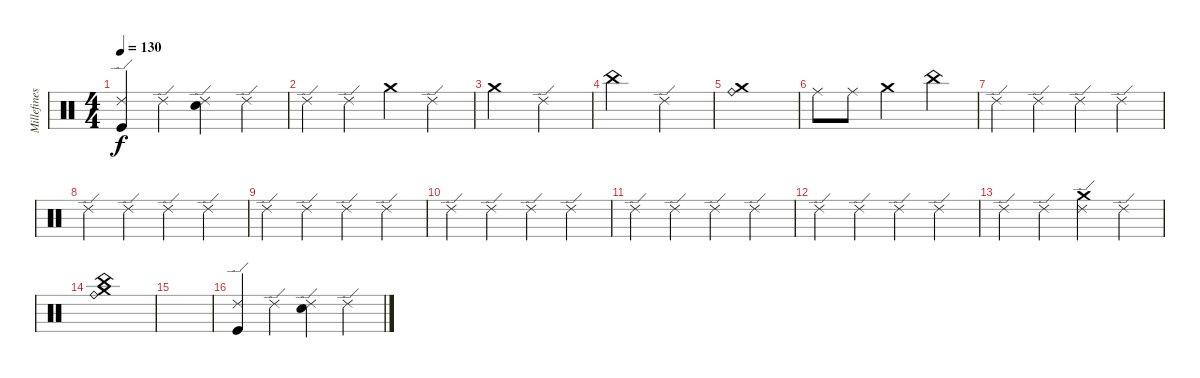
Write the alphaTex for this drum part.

\track ("Millefinestre" "Millefines") {instrument percussion}
\staff {score}
\articulation defaults
\ts (4 4)
\tempo 130
\clef neutral
\ks c
("Ride (edge) 2" "Kick (hit)").4{dy f} "Ride (edge) 2".4 ("Ride (edge) 2" "Snare (hit) 2").4 "Ride (edge) 2".4 |
"Ride (edge) 2".4 "Ride (edge) 2".4 "Crash medium (hit)".4 "Ride (edge) 2".4 |
"Crash medium (hit)".2 "Ride (edge) 2".2 |
"China (hit)".2 "Ride (edge) 2".2 |
("Crash medium (hit)" "Ride (bell)").1 |
"Ride (middle)".8 "Ride (middle)".8 "Crash medium (hit)".2 "China (hit)".4 |
"Ride (edge) 2".4 "Ride (edge) 2".4 "Ride (edge) 2".4 "Ride (edge) 2".4 |
"Ride (edge) 2".4 "Ride (edge) 2".4 "Ride (edge) 2".4 "Ride (edge) 2".4 |
"Ride (edge) 2".4 "Ride (edge) 2".4 "Ride (edge) 2".4 "Ride (edge) 2".4 |
"Ride (edge) 2".4 "Ride (edge) 2".4 "Ride (edge) 2".4 "Ride (edge) 2".4 |
"Ride (edge) 2".4 "Ride (edge) 2".4 "Ride (edge) 2".4 "Ride (edge) 2".4 |
"Ride (edge) 2".4 "Ride (edge) 2".4 "Ride (edge) 2".4 "Ride (edge) 2".4 |
"Ride (edge) 2".4 "Ride (edge) 2".4 ("Crash medium (hit)" "Ride (edge) 2").4 "Ride (edge) 2".4 |
("Crash medium (hit)" "Ride (bell)" "China (hit)").1 |
|
("Ride (edge) 2" "Kick (hit)").4 "Ride (edge) 2".4 ("Ride (edge) 2" "Snare (hit) 2").4 "Ride (edge) 2".4
